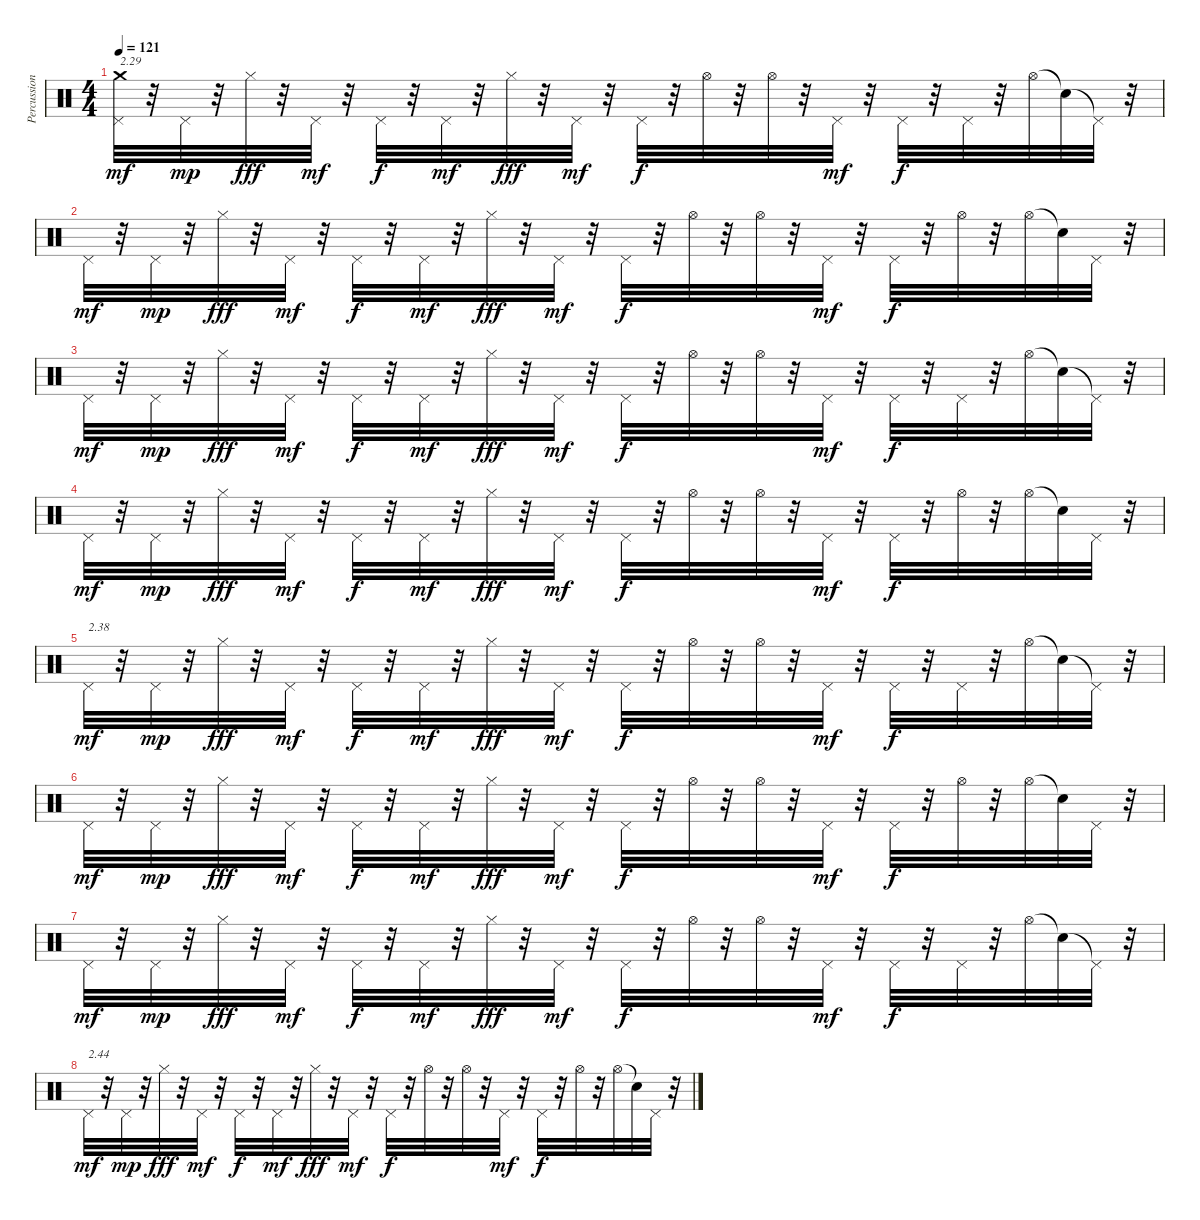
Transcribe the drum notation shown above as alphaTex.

\track ("Percussions" "Percussion") {instrument percussion}
\staff {score}
\articulation defaults
\ts (4 4)
\tempo 121
\clef neutral
\ks c
("Pedal Hi-Hat (hit)" "Crash medium (hit)").32{txt "2.29" dy mf} r.32 "Pedal Hi-Hat (hit)".32{dy mp} r.32 "Hi-Hat (closed)".32{dy fff} r.32 "Pedal Hi-Hat (hit)".32{dy mf} r.32 "Pedal Hi-Hat (hit)".32{dy f} r.32 "Pedal Hi-Hat (hit)".32{dy mf} r.32 "Hi-Hat (closed)".32{dy fff} r.32 "Pedal Hi-Hat (hit)".32{dy mf} r.32 "Pedal Hi-Hat (hit)".32{dy f} r.32 "Hi-Hat (open)".32 r.32 "Hi-Hat (open)".32 r.32 "Pedal Hi-Hat (hit)".32{dy mf} r.32 "Pedal Hi-Hat (hit)".32{dy f} r.32 "Pedal Hi-Hat (hit)".32 r.32 "Hi-Hat (open)".32 "Snare (hit)"{t}.32 "Pedal Hi-Hat (hit)"{t}.32 r.32 |
"Pedal Hi-Hat (hit)".32{dy mf} r.32 "Pedal Hi-Hat (hit)".32{dy mp} r.32 "Hi-Hat (closed)".32{dy fff} r.32 "Pedal Hi-Hat (hit)".32{dy mf} r.32 "Pedal Hi-Hat (hit)".32{dy f} r.32 "Pedal Hi-Hat (hit)".32{dy mf} r.32 "Hi-Hat (closed)".32{dy fff} r.32 "Pedal Hi-Hat (hit)".32{dy mf} r.32 "Pedal Hi-Hat (hit)".32{dy f} r.32 "Hi-Hat (open)".32 r.32 "Hi-Hat (open)".32 r.32 "Pedal Hi-Hat (hit)".32{dy mf} r.32 "Pedal Hi-Hat (hit)".32{dy f} r.32 "Hi-Hat (open)".32 r.32 "Hi-Hat (open)".32 "Snare (hit)"{t}.32 "Pedal Hi-Hat (hit)".32 r.32 |
"Pedal Hi-Hat (hit)".32{dy mf} r.32 "Pedal Hi-Hat (hit)".32{dy mp} r.32 "Hi-Hat (closed)".32{dy fff} r.32 "Pedal Hi-Hat (hit)".32{dy mf} r.32 "Pedal Hi-Hat (hit)".32{dy f} r.32 "Pedal Hi-Hat (hit)".32{dy mf} r.32 "Hi-Hat (closed)".32{dy fff} r.32 "Pedal Hi-Hat (hit)".32{dy mf} r.32 "Pedal Hi-Hat (hit)".32{dy f} r.32 "Hi-Hat (open)".32 r.32 "Hi-Hat (open)".32 r.32 "Pedal Hi-Hat (hit)".32{dy mf} r.32 "Pedal Hi-Hat (hit)".32{dy f} r.32 "Pedal Hi-Hat (hit)".32 r.32 "Hi-Hat (open)".32 "Snare (hit)"{t}.32 "Pedal Hi-Hat (hit)"{t}.32 r.32 |
"Pedal Hi-Hat (hit)".32{dy mf} r.32 "Pedal Hi-Hat (hit)".32{dy mp} r.32 "Hi-Hat (closed)".32{dy fff} r.32 "Pedal Hi-Hat (hit)".32{dy mf} r.32 "Pedal Hi-Hat (hit)".32{dy f} r.32 "Pedal Hi-Hat (hit)".32{dy mf} r.32 "Hi-Hat (closed)".32{dy fff} r.32 "Pedal Hi-Hat (hit)".32{dy mf} r.32 "Pedal Hi-Hat (hit)".32{dy f} r.32 "Hi-Hat (open)".32 r.32 "Hi-Hat (open)".32 r.32 "Pedal Hi-Hat (hit)".32{dy mf} r.32 "Pedal Hi-Hat (hit)".32{dy f} r.32 "Hi-Hat (open)".32 r.32 "Hi-Hat (open)".32 "Snare (hit)"{t}.32 "Pedal Hi-Hat (hit)".32 r.32 |
"Pedal Hi-Hat (hit)".32{txt "2.38" dy mf} r.32 "Pedal Hi-Hat (hit)".32{dy mp} r.32 "Hi-Hat (closed)".32{dy fff} r.32 "Pedal Hi-Hat (hit)".32{dy mf} r.32 "Pedal Hi-Hat (hit)".32{dy f} r.32 "Pedal Hi-Hat (hit)".32{dy mf} r.32 "Hi-Hat (closed)".32{dy fff} r.32 "Pedal Hi-Hat (hit)".32{dy mf} r.32 "Pedal Hi-Hat (hit)".32{dy f} r.32 "Hi-Hat (open)".32 r.32 "Hi-Hat (open)".32 r.32 "Pedal Hi-Hat (hit)".32{dy mf} r.32 "Pedal Hi-Hat (hit)".32{dy f} r.32 "Pedal Hi-Hat (hit)".32 r.32 "Hi-Hat (open)".32 "Snare (hit)"{t}.32 "Pedal Hi-Hat (hit)"{t}.32 r.32 |
"Pedal Hi-Hat (hit)".32{dy mf} r.32 "Pedal Hi-Hat (hit)".32{dy mp} r.32 "Hi-Hat (closed)".32{dy fff} r.32 "Pedal Hi-Hat (hit)".32{dy mf} r.32 "Pedal Hi-Hat (hit)".32{dy f} r.32 "Pedal Hi-Hat (hit)".32{dy mf} r.32 "Hi-Hat (closed)".32{dy fff} r.32 "Pedal Hi-Hat (hit)".32{dy mf} r.32 "Pedal Hi-Hat (hit)".32{dy f} r.32 "Hi-Hat (open)".32 r.32 "Hi-Hat (open)".32 r.32 "Pedal Hi-Hat (hit)".32{dy mf} r.32 "Pedal Hi-Hat (hit)".32{dy f} r.32 "Hi-Hat (open)".32 r.32 "Hi-Hat (open)".32 "Snare (hit)"{t}.32 "Pedal Hi-Hat (hit)".32 r.32 |
"Pedal Hi-Hat (hit)".32{dy mf} r.32 "Pedal Hi-Hat (hit)".32{dy mp} r.32 "Hi-Hat (closed)".32{dy fff} r.32 "Pedal Hi-Hat (hit)".32{dy mf} r.32 "Pedal Hi-Hat (hit)".32{dy f} r.32 "Pedal Hi-Hat (hit)".32{dy mf} r.32 "Hi-Hat (closed)".32{dy fff} r.32 "Pedal Hi-Hat (hit)".32{dy mf} r.32 "Pedal Hi-Hat (hit)".32{dy f} r.32 "Hi-Hat (open)".32 r.32 "Hi-Hat (open)".32 r.32 "Pedal Hi-Hat (hit)".32{dy mf} r.32 "Pedal Hi-Hat (hit)".32{dy f} r.32 "Pedal Hi-Hat (hit)".32 r.32 "Hi-Hat (open)".32 "Snare (hit)"{t}.32 "Pedal Hi-Hat (hit)"{t}.32 r.32 |
"Pedal Hi-Hat (hit)".32{txt "2.44" dy mf} r.32 "Pedal Hi-Hat (hit)".32{dy mp} r.32 "Hi-Hat (closed)".32{dy fff} r.32 "Pedal Hi-Hat (hit)".32{dy mf} r.32 "Pedal Hi-Hat (hit)".32{dy f} r.32 "Pedal Hi-Hat (hit)".32{dy mf} r.32 "Hi-Hat (closed)".32{dy fff} r.32 "Pedal Hi-Hat (hit)".32{dy mf} r.32 "Pedal Hi-Hat (hit)".32{dy f} r.32 "Hi-Hat (open)".32 r.32 "Hi-Hat (open)".32 r.32 "Pedal Hi-Hat (hit)".32{dy mf} r.32 "Pedal Hi-Hat (hit)".32{dy f} r.32 "Hi-Hat (open)".32 r.32 "Hi-Hat (open)".32 "Snare (hit)"{t}.32 "Pedal Hi-Hat (hit)".32 r.32
